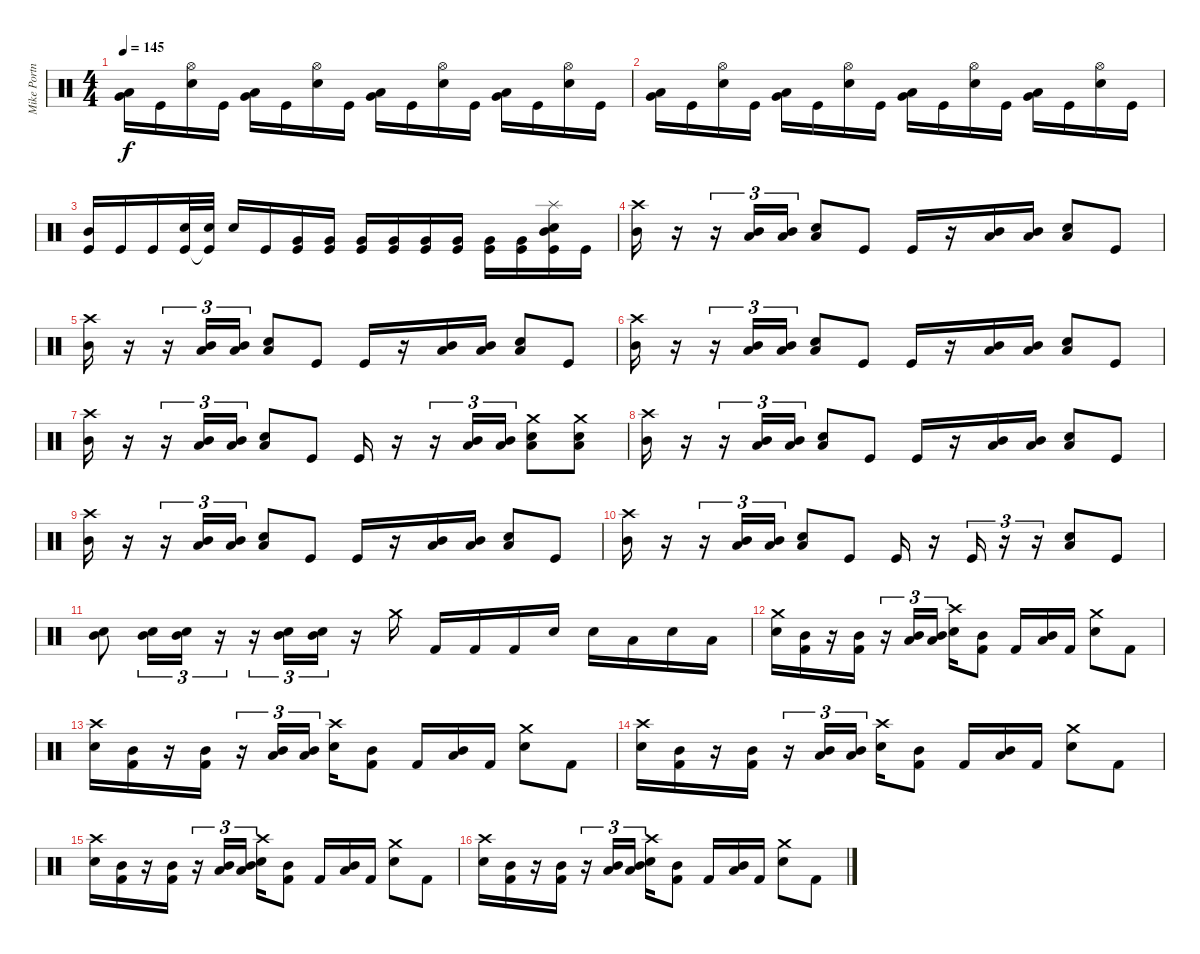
\track ("Mike Portnoy" "Mike Portn") {instrument percussion}
\staff {score}
\articulation defaults
\ts (4 4)
\tempo 145
\clef neutral
\ks c
("Low Floor Tom (hit)" "Very Low Tom (hit)").16{dy f} "Kick (hit)".16 ("Hi-Hat (open)" "Electric Snare (hit)").16 "Kick (hit)".16 ("Low Floor Tom (hit)" "Very Low Tom (hit)").16 "Kick (hit)".16 ("Hi-Hat (open)" "Electric Snare (hit)").16 "Kick (hit)".16 ("Low Floor Tom (hit)" "Very Low Tom (hit)").16 "Kick (hit)".16 ("Hi-Hat (open)" "Electric Snare (hit)").16 "Kick (hit)".16 ("Low Floor Tom (hit)" "Very Low Tom (hit)").16 "Kick (hit)".16 ("Hi-Hat (open)" "Electric Snare (hit)").16 "Kick (hit)".16 |
("Low Floor Tom (hit)" "Very Low Tom (hit)").16 "Kick (hit)".16 ("Hi-Hat (open)" "Electric Snare (hit)").16 "Kick (hit)".16 ("Low Floor Tom (hit)" "Very Low Tom (hit)").16 "Kick (hit)".16 ("Hi-Hat (open)" "Electric Snare (hit)").16 "Kick (hit)".16 ("Low Floor Tom (hit)" "Very Low Tom (hit)").16 "Kick (hit)".16 ("Hi-Hat (open)" "Electric Snare (hit)").16 "Kick (hit)".16 ("Low Floor Tom (hit)" "Very Low Tom (hit)").16 "Kick (hit)".16 ("Hi-Hat (open)" "Electric Snare (hit)").16 "Kick (hit)".16 |
("Mid Tom (hit)" "Kick (hit)").16 "Kick (hit)".16 "Kick (hit)".16 ("Electric Snare (hit)" "Kick (hit)").32 ("Electric Snare (hit)" "Kick (hit)"{t}).32 "Electric Snare (hit)".16 "Kick (hit)".16 ("Very Low Tom (hit)" "Kick (hit)").16 ("Very Low Tom (hit)" "Kick (hit)").16 ("Very Low Tom (hit)" "Kick (hit)").16 ("Very Low Tom (hit)" "Kick (hit)").16 ("Very Low Tom (hit)" "Kick (hit)").16 ("Very Low Tom (hit)" "Kick (hit)").16 ("Very Low Tom (hit)" "Kick (hit)").16 ("Very Low Tom (hit)" "Kick (hit)").16 ("Splash (hit)" "Electric Snare (hit)" "Mid Tom (hit)" "Kick (hit)").16 "Kick (hit)".16 |
("Crash high (hit)" "Mid Tom (hit)").16 r.16 r.16{tu (3 2)} ("Mid Tom (hit)" "Low Tom (hit)").16{tu (3 2)} ("Mid Tom (hit)" "Low Tom (hit)").16{tu (3 2)} ("Electric Snare (hit)" "Low Tom (hit)").8 "Kick (hit)".8 "Kick (hit)".16 r.16 ("Mid Tom (hit)" "Low Tom (hit)").16 ("Mid Tom (hit)" "Low Tom (hit)").16 ("Electric Snare (hit)" "Low Tom (hit)").8 "Kick (hit)".8 |
("Crash high (hit)" "Mid Tom (hit)").16 r.16 r.16{tu (3 2)} ("Mid Tom (hit)" "Low Tom (hit)").16{tu (3 2)} ("Mid Tom (hit)" "Low Tom (hit)").16{tu (3 2)} ("Electric Snare (hit)" "Low Tom (hit)").8 "Kick (hit)".8 "Kick (hit)".16 r.16 ("Mid Tom (hit)" "Low Tom (hit)").16 ("Mid Tom (hit)" "Low Tom (hit)").16 ("Electric Snare (hit)" "Low Tom (hit)").8 "Kick (hit)".8 |
("Crash high (hit)" "Mid Tom (hit)").16 r.16 r.16{tu (3 2)} ("Mid Tom (hit)" "Low Tom (hit)").16{tu (3 2)} ("Mid Tom (hit)" "Low Tom (hit)").16{tu (3 2)} ("Electric Snare (hit)" "Low Tom (hit)").8 "Kick (hit)".8 "Kick (hit)".16 r.16 ("Mid Tom (hit)" "Low Tom (hit)").16 ("Mid Tom (hit)" "Low Tom (hit)").16 ("Electric Snare (hit)" "Low Tom (hit)").8 "Kick (hit)".8 |
("Crash high (hit)" "Mid Tom (hit)").16 r.16 r.16{tu (3 2)} ("Mid Tom (hit)" "Low Tom (hit)").16{tu (3 2)} ("Mid Tom (hit)" "Low Tom (hit)").16{tu (3 2)} ("Electric Snare (hit)" "Low Tom (hit)").8 "Kick (hit)".8 "Kick (hit)".16 r.16 r.16{tu (3 2)} ("Mid Tom (hit)" "Low Tom (hit)").16{tu (3 2)} ("Mid Tom (hit)" "Low Tom (hit)").16{tu (3 2)} ("Crash medium (hit)" "Electric Snare (hit)" "Low Tom (hit)").8 ("Crash medium (hit)" "Electric Snare (hit)" "Low Tom (hit)").8 |
("Crash high (hit)" "Mid Tom (hit)").16 r.16 r.16{tu (3 2)} ("Mid Tom (hit)" "Low Tom (hit)").16{tu (3 2)} ("Mid Tom (hit)" "Low Tom (hit)").16{tu (3 2)} ("Electric Snare (hit)" "Low Tom (hit)").8 "Kick (hit)".8 "Kick (hit)".16 r.16 ("Mid Tom (hit)" "Low Tom (hit)").16 ("Mid Tom (hit)" "Low Tom (hit)").16 ("Electric Snare (hit)" "Low Tom (hit)").8 "Kick (hit)".8 |
("Crash high (hit)" "Mid Tom (hit)").16 r.16 r.16{tu (3 2)} ("Mid Tom (hit)" "Low Tom (hit)").16{tu (3 2)} ("Mid Tom (hit)" "Low Tom (hit)").16{tu (3 2)} ("Electric Snare (hit)" "Low Tom (hit)").8 "Kick (hit)".8 "Kick (hit)".16 r.16 ("Mid Tom (hit)" "Low Tom (hit)").16 ("Mid Tom (hit)" "Low Tom (hit)").16 ("Electric Snare (hit)" "Low Tom (hit)").8 "Kick (hit)".8 |
("Crash high (hit)" "Mid Tom (hit)").16 r.16 r.16{tu (3 2)} ("Mid Tom (hit)" "Low Tom (hit)").16{tu (3 2)} ("Mid Tom (hit)" "Low Tom (hit)").16{tu (3 2)} ("Electric Snare (hit)" "Low Tom (hit)").8 "Kick (hit)".8 "Kick (hit)".16 r.16 "Kick (hit)".16{tu (3 2)} r.16{tu (3 2)} r.16{tu (3 2)} ("Electric Snare (hit)" "Low Tom (hit)").8 "Kick (hit)".8 |
("Electric Snare (hit)" "Mid Tom (hit)").8 ("Electric Snare (hit)" "Mid Tom (hit)").16{tu (3 2)} ("Electric Snare (hit)" "Mid Tom (hit)").16{tu (3 2)} r.16{tu (3 2)} r.16{tu (3 2)} ("Electric Snare (hit)" "Mid Tom (hit)").16{tu (3 2)} ("Electric Snare (hit)" "Mid Tom (hit)").16{tu (3 2)} r.16 "Crash medium (hit)".16 "Kick (hit) 2".16 "Kick (hit) 2".16 "Kick (hit) 2".16 "Electric Snare (hit)".16 "Electric Snare (hit)".16 "Low Tom (hit)".16 "Electric Snare (hit)".16 "Low Tom (hit)".16 |
("Crash medium (hit)" "Electric Snare (hit)").16 ("Mid Tom (hit)" "Kick (hit) 2").16 r.16 ("Mid Tom (hit)" "Kick (hit) 2").16 r.16{tu (3 2)} ("Mid Tom (hit)" "Low Tom (hit)").16{tu (3 2)} ("Mid Tom (hit)" "Low Tom (hit)").16{tu (3 2) beam splitsecondary} ("Crash high (hit)" "Electric Snare (hit)").16 ("Mid Tom (hit)" "Kick (hit) 2").8 "Kick (hit) 2".16 ("Mid Tom (hit)" "Low Tom (hit)").16 "Kick (hit) 2".16 ("Crash medium (hit)" "Electric Snare (hit)").8 "Kick (hit) 2".8 |
("Crash high (hit)" "Electric Snare (hit)").16 ("Mid Tom (hit)" "Kick (hit) 2").16 r.16 ("Mid Tom (hit)" "Kick (hit) 2").16 r.16{tu (3 2)} ("Mid Tom (hit)" "Low Tom (hit)").16{tu (3 2)} ("Mid Tom (hit)" "Low Tom (hit)").16{tu (3 2) beam splitsecondary} ("Crash high (hit)" "Electric Snare (hit)").16 ("Mid Tom (hit)" "Kick (hit) 2").8 "Kick (hit) 2".16 ("Mid Tom (hit)" "Low Tom (hit)").16 "Kick (hit) 2".16 ("Crash medium (hit)" "Electric Snare (hit)").8 "Kick (hit) 2".8 |
("Crash high (hit)" "Electric Snare (hit)").16 ("Mid Tom (hit)" "Kick (hit) 2").16 r.16 ("Mid Tom (hit)" "Kick (hit) 2").16 r.16{tu (3 2)} ("Mid Tom (hit)" "Low Tom (hit)").16{tu (3 2)} ("Mid Tom (hit)" "Low Tom (hit)").16{tu (3 2) beam splitsecondary} ("Crash high (hit)" "Electric Snare (hit)").16 ("Mid Tom (hit)" "Kick (hit) 2").8 "Kick (hit) 2".16 ("Mid Tom (hit)" "Low Tom (hit)").16 "Kick (hit) 2".16 ("Crash medium (hit)" "Electric Snare (hit)").8 "Kick (hit) 2".8 |
("Crash high (hit)" "Electric Snare (hit)").16 ("Mid Tom (hit)" "Kick (hit) 2").16 r.16 ("Mid Tom (hit)" "Kick (hit) 2").16 r.16{tu (3 2)} ("Mid Tom (hit)" "Low Tom (hit)").16{tu (3 2)} ("Mid Tom (hit)" "Low Tom (hit)").16{tu (3 2) beam splitsecondary} ("Crash high (hit)" "Electric Snare (hit)").16 ("Mid Tom (hit)" "Kick (hit) 2").8 "Kick (hit) 2".16 ("Mid Tom (hit)" "Low Tom (hit)").16 "Kick (hit) 2".16 ("Crash medium (hit)" "Electric Snare (hit)").8 "Kick (hit) 2".8 |
("Crash high (hit)" "Electric Snare (hit)").16 ("Mid Tom (hit)" "Kick (hit) 2").16 r.16 ("Mid Tom (hit)" "Kick (hit) 2").16 r.16{tu (3 2)} ("Mid Tom (hit)" "Low Tom (hit)").16{tu (3 2)} ("Mid Tom (hit)" "Low Tom (hit)").16{tu (3 2) beam splitsecondary} ("Crash high (hit)" "Electric Snare (hit)").16 ("Mid Tom (hit)" "Kick (hit) 2").8 "Kick (hit) 2".16 ("Mid Tom (hit)" "Low Tom (hit)").16 "Kick (hit) 2".16 ("Crash medium (hit)" "Electric Snare (hit)").8 "Kick (hit) 2".8
